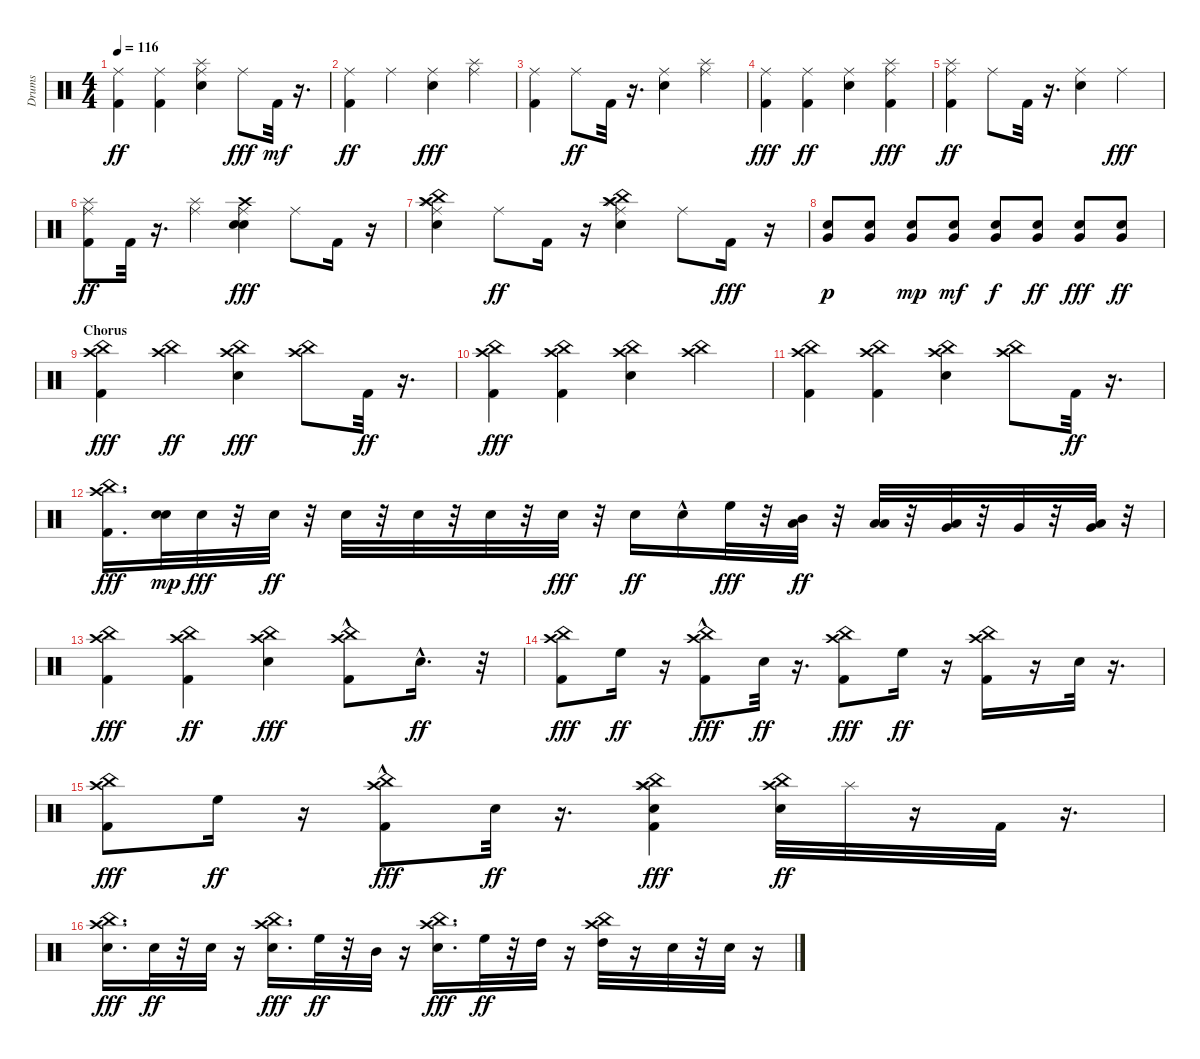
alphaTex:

\track ("Drums" "Drums") {instrument percussion}
\staff {score}
\articulation defaults
\ts (4 4)
\tempo 116
\clef neutral
\ks c
("Kick (hit) 2" "Ride (middle)").4{dy ff} ("Kick (hit) 2" "Ride (middle)").4 ("Splash (hit)" "Ride (middle)" "Snare (hit) 2").4 "Ride (middle)".8{dy fff} "Kick (hit) 2".32{dy mf} r.16{d} |
("Kick (hit) 2" "Ride (middle)").4{dy ff} "Ride (middle)".4 ("Snare (hit) 2" "Ride (middle)").4{dy fff} ("Splash (hit)" "Ride (middle)").4 |
("Kick (hit) 2" "Ride (middle)").4 "Ride (middle)".8{dy ff} "Kick (hit) 2".32 r.16{d} ("Snare (hit) 2" "Ride (middle)").4 ("Splash (hit)" "Ride (middle)").4 |
("Kick (hit) 2" "Ride (middle)").4{dy fff} ("Kick (hit) 2" "Ride (middle)").4{dy ff} ("Snare (hit) 2" "Ride (middle)").4 ("Splash (hit)" "Kick (hit) 2" "Ride (middle)").4{dy fff} |
("Splash (hit)" "Kick (hit) 2" "Ride (middle)").4{dy ff} "Ride (middle)".8 "Kick (hit) 2".32 r.16{d} ("Ride (middle)" "Snare (hit) 2").4 "Ride (middle)".4{dy fff} |
("Kick (hit) 2" "Splash (hit)" "Ride (middle)").8{dy ff} "Kick (hit) 2".32 r.16{d} ("Splash (hit)" "Ride (middle)").4 ("Snare (hit) 2" "Ride (middle)" "Snare (hit) 2" "Crash high (hit)").4{dy fff} "Ride (middle)".8 "Kick (hit) 2".16 r.16 |
("Splash (hit)" "China (hit)" "Snare (hit) 2" "Crash high (hit)" "Ride (middle)").4 "Ride (middle)".8{dy ff} "Kick (hit) 2".16 r.16 ("Splash (hit)" "China (hit)" "Crash high (hit)" "Ride (middle)" "Snare (hit) 2").4 "Ride (middle)".8 "Kick (hit) 2".16{dy fff} r.16 |
("Very Low Tom (hit)" "Snare (hit) 2").8{dy p} ("Very Low Tom (hit)" "Snare (hit) 2").8 ("Snare (hit) 2" "Very Low Tom (hit)").8{dy mp} ("Very Low Tom (hit)" "Snare (hit) 2").8{dy mf} ("Very Low Tom (hit)" "Snare (hit) 2").8{dy f} ("Very Low Tom (hit)" "Snare (hit) 2").8{dy ff} ("Very Low Tom (hit)" "Snare (hit) 2").8{dy fff} ("Snare (hit) 2" "Very Low Tom (hit)").8{dy ff} |
\section ("" "Chorus")
("Kick (hit) 2" "China (hit)" "Crash high (hit)").4{dy fff} ("China (hit)" "Crash high (hit)").4{dy ff} ("Snare (hit) 2" "China (hit)" "Crash high (hit)").4{dy fff} ("China (hit)" "Crash high (hit)").8 "Kick (hit) 2".32{dy ff} r.16{d} |
("Kick (hit) 2" "China (hit)" "Crash high (hit)").4{dy fff} ("Kick (hit) 2" "China (hit)" "Crash high (hit)").4 ("Snare (hit) 2" "China (hit)" "Crash high (hit)").4 ("China (hit)" "Crash high (hit)").4 |
("Kick (hit) 2" "China (hit)" "Crash high (hit)").4 ("Kick (hit) 2" "China (hit)" "Crash high (hit)").4 ("Snare (hit) 2" "Crash high (hit)" "China (hit)").4 ("China (hit)" "Crash high (hit)").8 "Kick (hit) 2".32{dy ff} r.16{d} |
("Kick (hit) 2" "China (hit)" "Crash high (hit)").16{d dy fff} ("Snare (hit) 2" "Snare (hit) 2").32{dy mp} "Snare (hit) 2".32{dy fff} r.32 "Snare (hit) 2".32{dy ff} r.32 "Snare (hit) 2".32 r.32 "Snare (hit) 2".32 r.32 "Snare (hit) 2".32 r.32 "Snare (hit) 2".32{dy fff} r.32 "Snare (hit) 2".16{dy ff} "Snare (hit) 2"{hac}.16 "High Floor Tom (hit)".32{dy fff} r.32 ("Low Tom (hit)" "Mid Tom (hit)").32{dy ff} r.32 ("Low Floor Tom (hit)" "Low Tom (hit)").32 r.32 ("Very Low Tom (hit)" "Low Tom (hit)").32 r.32 "Very Low Tom (hit)".32 r.32 ("Low Floor Tom (hit)" "Very Low Tom (hit)").32 r.32 |
("Kick (hit) 2" "China (hit)" "Crash high (hit)").4{dy fff} ("Kick (hit) 2" "China (hit)" "Crash high (hit)").4{dy ff} ("Snare (hit) 2" "China (hit)" "Crash high (hit)").4{dy fff} ("Kick (hit) 2"{hac} "China (hit)" "Crash high (hit)").8 "Snare (hit) 2"{hac}.16{d dy ff} r.32 |
("Kick (hit) 2" "China (hit)" "Crash high (hit)").8{dy fff} "High Floor Tom (hit)".16{dy ff} r.16 ("Kick (hit) 2"{hac} "China (hit)" "Crash high (hit)").8{dy fff} "Snare (hit) 2".32{dy ff} r.16{d} ("Kick (hit) 2" "China (hit)" "Crash high (hit)").8{dy fff} "High Floor Tom (hit)".16{dy ff} r.16 ("Crash high (hit)" "Kick (hit) 2" "China (hit)").16 r.16 "Snare (hit) 2".32 r.16{d} |
("Kick (hit) 2" "China (hit)" "Crash high (hit)").8{dy fff} "High Floor Tom (hit)".16{dy ff} r.16 ("Kick (hit) 2"{hac} "China (hit)" "Crash high (hit)").8{dy fff} "Snare (hit) 2".32{dy ff} r.16{d} ("Splash (hit)" "Kick (hit) 2" "Snare (hit) 2" "China (hit)" "Crash high (hit)").4{dy fff} ("Snare (hit) 2" "Crash high (hit)" "China (hit)").32{dy ff} "Splash (hit)".32 r.16 "Kick (hit) 2".32 r.16{d} |
("Snare (hit) 2" "China (hit)" "Crash high (hit)").16{d dy fff} "Snare (hit) 2".32{dy ff} r.32 "Snare (hit) 2".32 r.16 ("Snare (hit) 2" "China (hit)" "Crash high (hit)").16{d dy fff} "High Floor Tom (hit)".32{dy ff} r.32 "Mid Tom (hit)".32 r.16 ("Snare (hit) 2" "China (hit)" "Crash high (hit)").16{d dy fff} "High Floor Tom (hit)".32{dy ff} r.32 "High Tom (hit)".32 r.16 ("High Tom (hit)" "Crash high (hit)" "China (hit)").32 r.16 "Snare (hit) 2".32 r.32 "Snare (hit) 2".32 r.16
